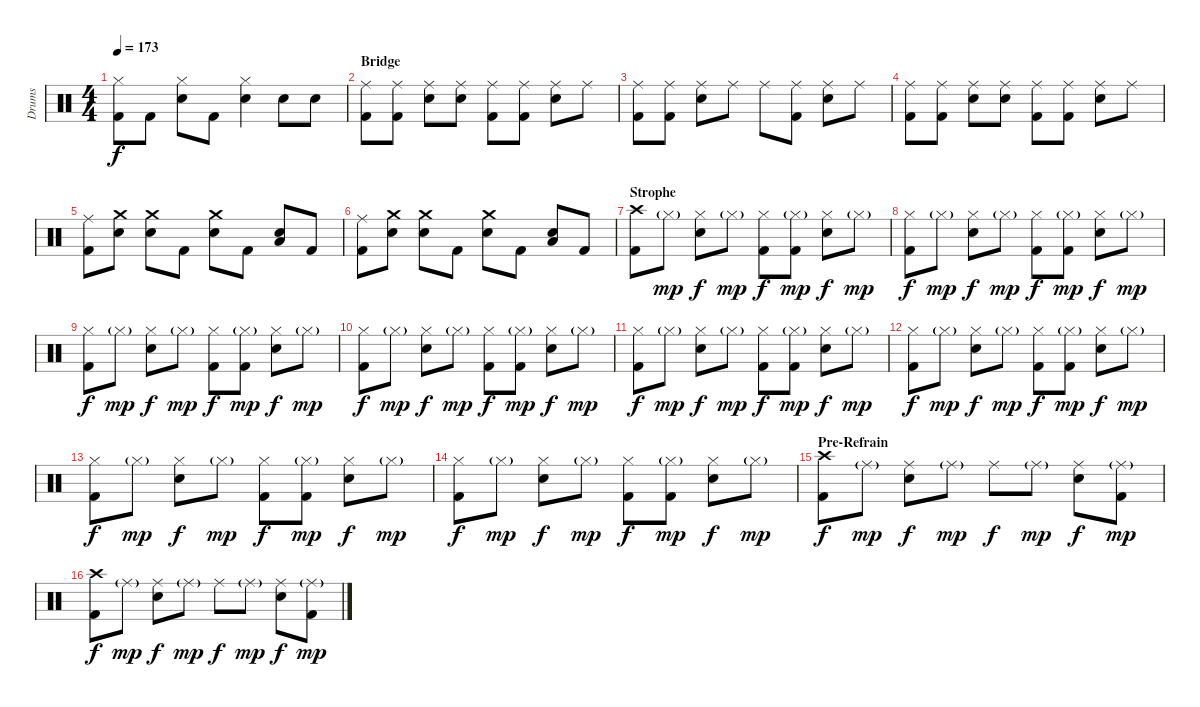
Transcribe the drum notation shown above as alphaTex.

\track ("Drums" "Drums") {instrument percussion}
\staff {score}
\articulation defaults
\ts (4 4)
\tempo 173
\clef neutral
\ks c
("Hi-Hat (closed)" "Kick (hit) 2").8{dy f} "Kick (hit) 2".8 ("Hi-Hat (closed)" "Electric Snare (hit)").8 "Kick (hit) 2".8 ("Hi-Hat (closed)" "Electric Snare (hit)").4 "Electric Snare (hit)".8 "Electric Snare (hit)".8 |
\section ("" "Bridge")
("Ride (middle)" "Kick (hit) 2").8 ("Ride (middle)" "Kick (hit) 2").8 ("Ride (middle)" "Electric Snare (hit)").8 ("Ride (middle)" "Electric Snare (hit)").8 ("Ride (middle)" "Kick (hit) 2").8 ("Ride (middle)" "Kick (hit) 2").8 ("Ride (middle)" "Electric Snare (hit)").8 "Ride (middle)".8 |
("Ride (middle)" "Kick (hit) 2").8 ("Ride (middle)" "Kick (hit) 2").8 ("Ride (middle)" "Electric Snare (hit)").8 "Ride (middle)".8 "Ride (middle)".8 ("Ride (middle)" "Kick (hit) 2").8 ("Ride (middle)" "Electric Snare (hit)").8 "Ride (middle)".8 |
("Ride (middle)" "Kick (hit) 2").8 ("Ride (middle)" "Kick (hit) 2").8 ("Ride (middle)" "Electric Snare (hit)").8 ("Ride (middle)" "Electric Snare (hit)").8 ("Ride (middle)" "Kick (hit) 2").8 ("Ride (middle)" "Kick (hit) 2").8 ("Ride (middle)" "Electric Snare (hit)").8 "Ride (middle)".8 |
("Ride (middle)" "Kick (hit) 2").8 ("Crash medium (hit)" "Electric Snare (hit)").8 ("Crash medium (hit)" "Electric Snare (hit)").8 "Kick (hit) 2".8 ("Crash medium (hit)" "Electric Snare (hit)").8 "Kick (hit) 2".8 ("Electric Snare (hit)" "Low Tom (hit)").8 "Kick (hit) 2".8 |
("Ride (middle)" "Kick (hit) 2").8 ("Crash medium (hit)" "Electric Snare (hit)").8 ("Crash medium (hit)" "Electric Snare (hit)").8 "Kick (hit) 2".8 ("Crash medium (hit)" "Electric Snare (hit)").8 "Kick (hit) 2".8 ("Electric Snare (hit)" "Low Tom (hit)").8 "Kick (hit) 2".8 |
\section ("" "Strophe")
("Crash high (hit)" "Kick (hit) 2").8 "Hi-Hat (closed)"{g}.8{dy mp} ("Hi-Hat (closed)" "Electric Snare (hit)").8{dy f} "Hi-Hat (closed)"{g}.8{dy mp} ("Hi-Hat (closed)" "Kick (hit) 2").8{dy f} ("Hi-Hat (closed)"{g} "Kick (hit) 2").8{dy mp} ("Hi-Hat (closed)" "Electric Snare (hit)").8{dy f} "Hi-Hat (closed)"{g}.8{dy mp} |
("Hi-Hat (closed)" "Kick (hit) 2").8{dy f} "Hi-Hat (closed)"{g}.8{dy mp} ("Hi-Hat (closed)" "Electric Snare (hit)").8{dy f} "Hi-Hat (closed)"{g}.8{dy mp} ("Hi-Hat (closed)" "Kick (hit) 2").8{dy f} ("Hi-Hat (closed)"{g} "Kick (hit) 2").8{dy mp} ("Hi-Hat (closed)" "Electric Snare (hit)").8{dy f} "Hi-Hat (closed)"{g}.8{dy mp} |
("Hi-Hat (closed)" "Kick (hit) 2").8{dy f} "Hi-Hat (closed)"{g}.8{dy mp} ("Hi-Hat (closed)" "Electric Snare (hit)").8{dy f} "Hi-Hat (closed)"{g}.8{dy mp} ("Hi-Hat (closed)" "Kick (hit) 2").8{dy f} ("Hi-Hat (closed)"{g} "Kick (hit) 2").8{dy mp} ("Hi-Hat (closed)" "Electric Snare (hit)").8{dy f} "Hi-Hat (closed)"{g}.8{dy mp} |
("Hi-Hat (closed)" "Kick (hit) 2").8{dy f} "Hi-Hat (closed)"{g}.8{dy mp} ("Hi-Hat (closed)" "Electric Snare (hit)").8{dy f} "Hi-Hat (closed)"{g}.8{dy mp} ("Hi-Hat (closed)" "Kick (hit) 2").8{dy f} ("Hi-Hat (closed)"{g} "Kick (hit) 2").8{dy mp} ("Hi-Hat (closed)" "Electric Snare (hit)").8{dy f} "Hi-Hat (closed)"{g}.8{dy mp} |
("Hi-Hat (closed)" "Kick (hit) 2").8{dy f} "Hi-Hat (closed)"{g}.8{dy mp} ("Hi-Hat (closed)" "Electric Snare (hit)").8{dy f} "Hi-Hat (closed)"{g}.8{dy mp} ("Hi-Hat (closed)" "Kick (hit) 2").8{dy f} ("Hi-Hat (closed)"{g} "Kick (hit) 2").8{dy mp} ("Hi-Hat (closed)" "Electric Snare (hit)").8{dy f} "Hi-Hat (closed)"{g}.8{dy mp} |
("Hi-Hat (closed)" "Kick (hit) 2").8{dy f} "Hi-Hat (closed)"{g}.8{dy mp} ("Hi-Hat (closed)" "Electric Snare (hit)").8{dy f} "Hi-Hat (closed)"{g}.8{dy mp} ("Hi-Hat (closed)" "Kick (hit) 2").8{dy f} ("Hi-Hat (closed)"{g} "Kick (hit) 2").8{dy mp} ("Hi-Hat (closed)" "Electric Snare (hit)").8{dy f} "Hi-Hat (closed)"{g}.8{dy mp} |
("Hi-Hat (closed)" "Kick (hit) 2").8{dy f} "Hi-Hat (closed)"{g}.8{dy mp} ("Hi-Hat (closed)" "Electric Snare (hit)").8{dy f} "Hi-Hat (closed)"{g}.8{dy mp} ("Hi-Hat (closed)" "Kick (hit) 2").8{dy f} ("Hi-Hat (closed)"{g} "Kick (hit) 2").8{dy mp} ("Hi-Hat (closed)" "Electric Snare (hit)").8{dy f} "Hi-Hat (closed)"{g}.8{dy mp} |
("Hi-Hat (closed)" "Kick (hit) 2").8{dy f} "Hi-Hat (closed)"{g}.8{dy mp} ("Hi-Hat (closed)" "Electric Snare (hit)").8{dy f} "Hi-Hat (closed)"{g}.8{dy mp} ("Hi-Hat (closed)" "Kick (hit) 2").8{dy f} ("Hi-Hat (closed)"{g} "Kick (hit) 2").8{dy mp} ("Hi-Hat (closed)" "Electric Snare (hit)").8{dy f} "Hi-Hat (closed)"{g}.8{dy mp} |
\section ("" "Pre-Refrain")
("Crash high (hit)" "Kick (hit) 2").8{dy f} "Ride (middle)"{g}.8{dy mp} ("Ride (middle)" "Electric Snare (hit)").8{dy f} "Ride (middle)"{g}.8{dy mp} "Ride (middle)".8{dy f} "Ride (middle)"{g}.8{dy mp} ("Ride (middle)" "Electric Snare (hit)").8{dy f} ("Ride (middle)"{g} "Kick (hit) 2").8{dy mp} |
("Crash high (hit)" "Kick (hit) 2").8{dy f} "Ride (middle)"{g}.8{dy mp} ("Ride (middle)" "Electric Snare (hit)").8{dy f} "Ride (middle)"{g}.8{dy mp} "Ride (middle)".8{dy f} "Ride (middle)"{g}.8{dy mp} ("Ride (middle)" "Electric Snare (hit)").8{dy f} ("Ride (middle)"{g} "Kick (hit) 2").8{dy mp}
